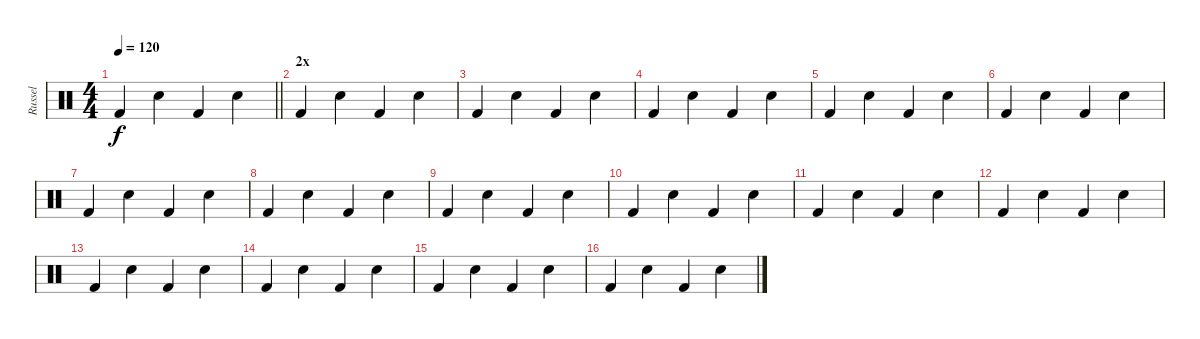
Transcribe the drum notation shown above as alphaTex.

\track ("Russel" "Russel") {instrument percussion}
\staff {score}
\articulation defaults
\ts (4 4)
\tempo 120
\clef neutral
\barLineRight lightlight
\ks c "Kick (hit) 2".4{dy f} "Hand Clap (hit)".4 "Kick (hit) 2".4 "Hand Clap (hit)".4
|
\section ("" "2х")
"Kick (hit) 2".4 "Hand Clap (hit)".4 "Kick (hit) 2".4 "Hand Clap (hit)".4 |
"Kick (hit) 2".4 "Hand Clap (hit)".4 "Kick (hit) 2".4 "Hand Clap (hit)".4 |
"Kick (hit) 2".4 "Hand Clap (hit)".4 "Kick (hit) 2".4 "Hand Clap (hit)".4 |
"Kick (hit) 2".4 "Hand Clap (hit)".4 "Kick (hit) 2".4 "Hand Clap (hit)".4 |
"Kick (hit) 2".4 "Hand Clap (hit)".4 "Kick (hit) 2".4 "Hand Clap (hit)".4 |
"Kick (hit) 2".4 "Hand Clap (hit)".4 "Kick (hit) 2".4 "Hand Clap (hit)".4 |
"Kick (hit) 2".4 "Hand Clap (hit)".4 "Kick (hit) 2".4 "Hand Clap (hit)".4 |
"Kick (hit) 2".4 "Hand Clap (hit)".4 "Kick (hit) 2".4 "Hand Clap (hit)".4 |
"Kick (hit) 2".4 "Hand Clap (hit)".4 "Kick (hit) 2".4 "Hand Clap (hit)".4 |
"Kick (hit) 2".4 "Hand Clap (hit)".4 "Kick (hit) 2".4 "Hand Clap (hit)".4 |
"Kick (hit) 2".4 "Hand Clap (hit)".4 "Kick (hit) 2".4 "Hand Clap (hit)".4 |
"Kick (hit) 2".4 "Hand Clap (hit)".4 "Kick (hit) 2".4 "Hand Clap (hit)".4 |
"Kick (hit) 2".4 "Hand Clap (hit)".4 "Kick (hit) 2".4 "Hand Clap (hit)".4 |
"Kick (hit) 2".4 "Hand Clap (hit)".4 "Kick (hit) 2".4 "Hand Clap (hit)".4 |
"Kick (hit) 2".4 "Hand Clap (hit)".4 "Kick (hit) 2".4 "Hand Clap (hit)".4
